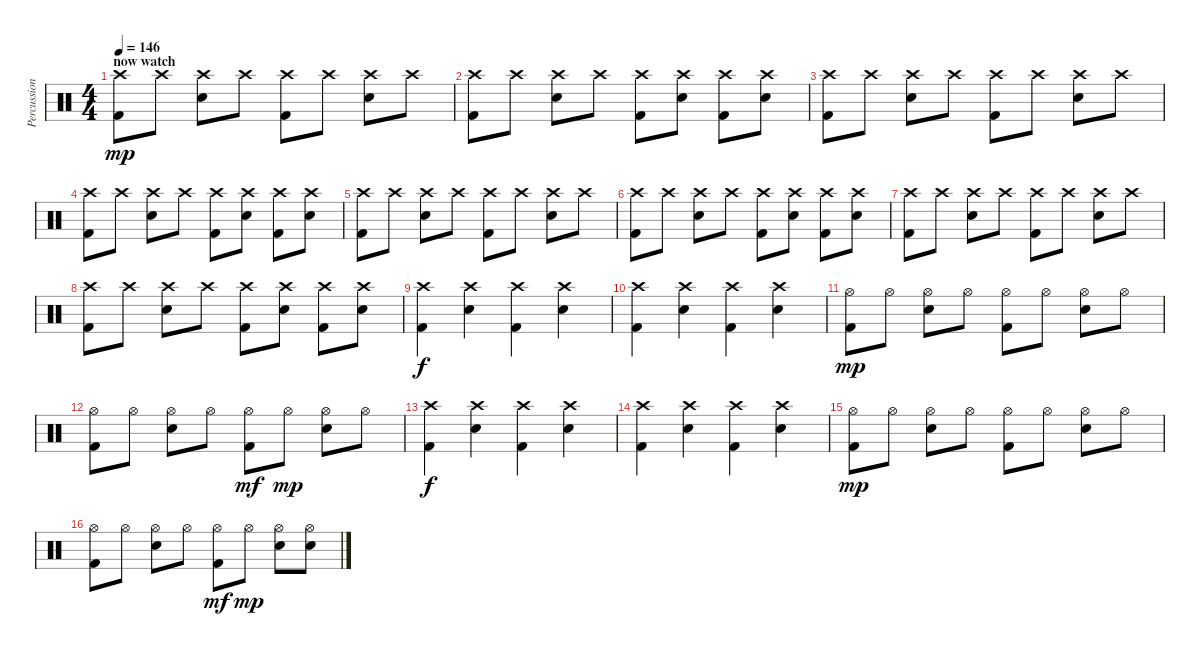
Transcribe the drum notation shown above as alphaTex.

\track ("Percussion" "Percussion") {instrument percussion}
\staff {score}
\articulation defaults
\ts (4 4)
\section ("" "now watch")
\tempo 146
\clef neutral
\ks c
("Kick (hit) 2" "Crash high (hit)").8{dy mp} "Crash high (hit)".8 ("Electric Snare (hit)" "Crash high (hit)").8 "Crash high (hit)".8 ("Kick (hit) 2" "Crash high (hit)").8 "Crash high (hit)".8 ("Electric Snare (hit)" "Crash high (hit)").8 "Crash high (hit)".8 |
("Kick (hit) 2" "Crash high (hit)").8 "Crash high (hit)".8 ("Electric Snare (hit)" "Crash high (hit)").8 "Crash high (hit)".8 ("Kick (hit) 2" "Crash high (hit)").8 ("Electric Snare (hit)" "Crash high (hit)").8 ("Kick (hit) 2" "Crash high (hit)").8 ("Electric Snare (hit)" "Crash high (hit)").8 |
("Kick (hit) 2" "Crash high (hit)").8 "Crash high (hit)".8 ("Electric Snare (hit)" "Crash high (hit)").8 "Crash high (hit)".8 ("Kick (hit) 2" "Crash high (hit)").8 "Crash high (hit)".8 ("Electric Snare (hit)" "Crash high (hit)").8 "Crash high (hit)".8 |
("Kick (hit) 2" "Crash high (hit)").8 "Crash high (hit)".8 ("Electric Snare (hit)" "Crash high (hit)").8 "Crash high (hit)".8 ("Kick (hit) 2" "Crash high (hit)").8 ("Electric Snare (hit)" "Crash high (hit)").8 ("Kick (hit) 2" "Crash high (hit)").8 ("Electric Snare (hit)" "Crash high (hit)").8 |
("Kick (hit) 2" "Crash high (hit)").8 "Crash high (hit)".8 ("Electric Snare (hit)" "Crash high (hit)").8 "Crash high (hit)".8 ("Kick (hit) 2" "Crash high (hit)").8 "Crash high (hit)".8 ("Electric Snare (hit)" "Crash high (hit)").8 "Crash high (hit)".8 |
("Kick (hit) 2" "Crash high (hit)").8 "Crash high (hit)".8 ("Electric Snare (hit)" "Crash high (hit)").8 "Crash high (hit)".8 ("Kick (hit) 2" "Crash high (hit)").8 ("Electric Snare (hit)" "Crash high (hit)").8 ("Kick (hit) 2" "Crash high (hit)").8 ("Electric Snare (hit)" "Crash high (hit)").8 |
("Kick (hit) 2" "Crash high (hit)").8 "Crash high (hit)".8 ("Electric Snare (hit)" "Crash high (hit)").8 "Crash high (hit)".8 ("Kick (hit) 2" "Crash high (hit)").8 "Crash high (hit)".8 ("Electric Snare (hit)" "Crash high (hit)").8 "Crash high (hit)".8 |
("Kick (hit) 2" "Crash high (hit)").8 "Crash high (hit)".8 ("Electric Snare (hit)" "Crash high (hit)").8 "Crash high (hit)".8 ("Kick (hit) 2" "Crash high (hit)").8 ("Electric Snare (hit)" "Crash high (hit)").8 ("Kick (hit) 2" "Crash high (hit)").8 ("Electric Snare (hit)" "Crash high (hit)").8 |
("Kick (hit) 2" "Crash high (hit)").4{dy f} ("Electric Snare (hit)" "Crash high (hit)").4 ("Kick (hit) 2" "Crash high (hit)").4 ("Electric Snare (hit)" "Crash high (hit)").4 |
("Kick (hit) 2" "Crash high (hit)").4 ("Electric Snare (hit)" "Crash high (hit)").4 ("Kick (hit) 2" "Crash high (hit)").4 ("Electric Snare (hit)" "Crash high (hit)").4 |
("Kick (hit) 2" "Hi-Hat (open)").8{dy mp} "Hi-Hat (open)".8 ("Electric Snare (hit)" "Hi-Hat (open)").8 "Hi-Hat (open)".8 ("Kick (hit) 2" "Hi-Hat (open)").8 "Hi-Hat (open)".8 ("Electric Snare (hit)" "Hi-Hat (open)").8 "Hi-Hat (open)".8 |
("Kick (hit) 2" "Hi-Hat (open)").8 "Hi-Hat (open)".8 ("Electric Snare (hit)" "Hi-Hat (open)").8 "Hi-Hat (open)".8 ("Kick (hit) 2" "Hi-Hat (open)").8{dy mf} "Hi-Hat (open)".8{dy mp} ("Electric Snare (hit)" "Hi-Hat (open)").8 "Hi-Hat (open)".8 |
("Kick (hit) 2" "Crash high (hit)").4{dy f} ("Electric Snare (hit)" "Crash high (hit)").4 ("Kick (hit) 2" "Crash high (hit)").4 ("Electric Snare (hit)" "Crash high (hit)").4 |
("Kick (hit) 2" "Crash high (hit)").4 ("Electric Snare (hit)" "Crash high (hit)").4 ("Kick (hit) 2" "Crash high (hit)").4 ("Electric Snare (hit)" "Crash high (hit)").4 |
("Kick (hit) 2" "Hi-Hat (open)").8{dy mp} "Hi-Hat (open)".8 ("Electric Snare (hit)" "Hi-Hat (open)").8 "Hi-Hat (open)".8 ("Kick (hit) 2" "Hi-Hat (open)").8 "Hi-Hat (open)".8 ("Electric Snare (hit)" "Hi-Hat (open)").8 "Hi-Hat (open)".8 |
("Kick (hit) 2" "Hi-Hat (open)").8 "Hi-Hat (open)".8 ("Electric Snare (hit)" "Hi-Hat (open)").8 "Hi-Hat (open)".8 ("Kick (hit) 2" "Hi-Hat (open)").8{dy mf} "Hi-Hat (open)".8{dy mp} ("Electric Snare (hit)" "Hi-Hat (open)").8 ("Electric Snare (hit)" "Hi-Hat (open)").8
